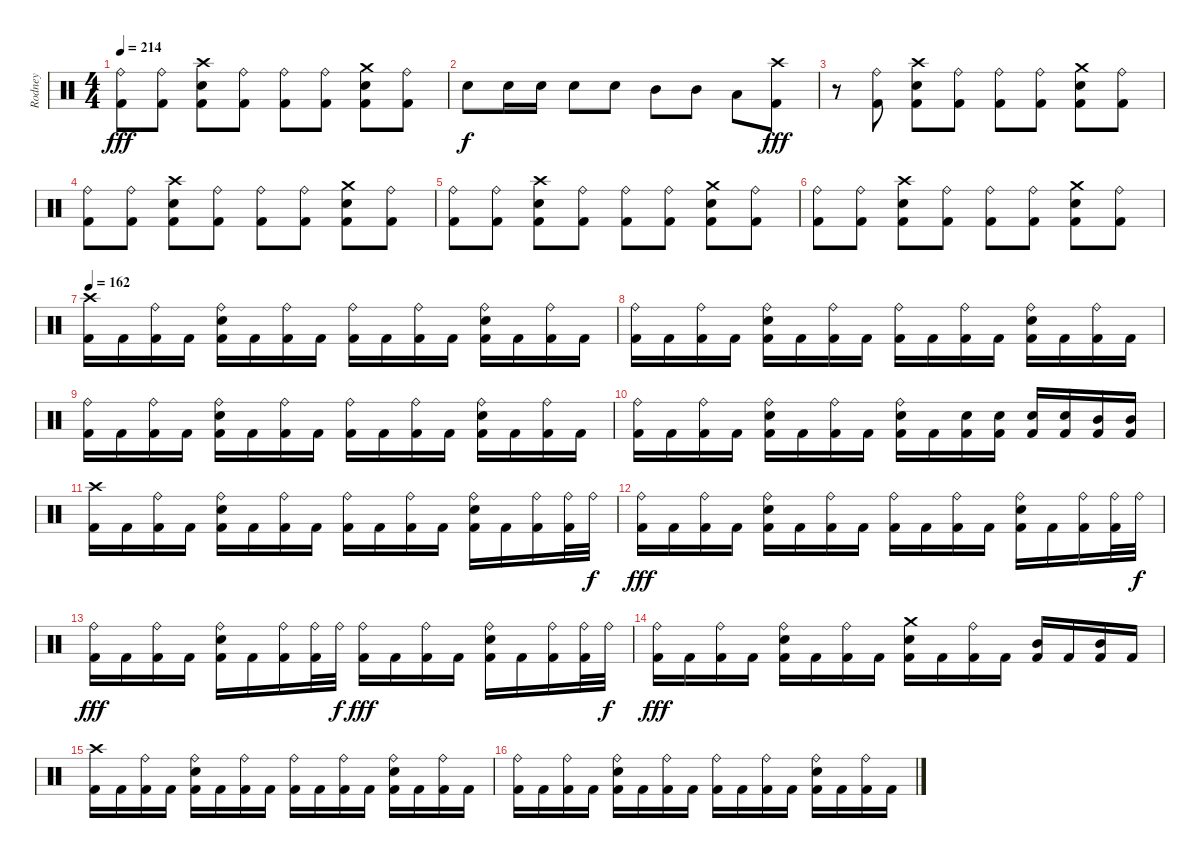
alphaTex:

\track ("Rodney" "Rodney") {instrument percussion}
\staff {score}
\articulation defaults
\ts (4 4)
\tempo 214
\clef neutral
\ks c
("Ride (bell)" "Kick (hit) 2").8{dy fff} ("Ride (bell)" "Kick (hit) 2").8 ("Crash high (hit)" "Snare (hit) 2" "Kick (hit) 2").8 ("Ride (bell)" "Kick (hit) 2").8 ("Ride (bell)" "Kick (hit) 2").8 ("Ride (bell)" "Kick (hit) 2").8 ("Crash medium (hit)" "Snare (hit) 2" "Kick (hit) 2").8 ("Ride (bell)" "Kick (hit) 2").8 |
"Snare (hit) 2".8{dy f} "Snare (hit) 2".16 "Snare (hit) 2".16 "Snare (hit) 2".8 "Snare (hit) 2".8 "Mid Tom (hit)".8 "Mid Tom (hit)".8 "Low Tom (hit)".8 ("Crash high (hit)" "Kick (hit) 2").8{dy fff} |
r.8 ("Ride (bell)" "Kick (hit) 2").8 ("Crash high (hit)" "Snare (hit) 2" "Kick (hit) 2").8 ("Ride (bell)" "Kick (hit) 2").8 ("Ride (bell)" "Kick (hit) 2").8 ("Ride (bell)" "Kick (hit) 2").8 ("Crash medium (hit)" "Snare (hit) 2" "Kick (hit) 2").8 ("Ride (bell)" "Kick (hit) 2").8 |
("Ride (bell)" "Kick (hit) 2").8 ("Ride (bell)" "Kick (hit) 2").8 ("Crash high (hit)" "Snare (hit) 2" "Kick (hit) 2").8 ("Ride (bell)" "Kick (hit) 2").8 ("Ride (bell)" "Kick (hit) 2").8 ("Ride (bell)" "Kick (hit) 2").8 ("Crash medium (hit)" "Snare (hit) 2" "Kick (hit) 2").8 ("Ride (bell)" "Kick (hit) 2").8 |
("Ride (bell)" "Kick (hit) 2").8 ("Ride (bell)" "Kick (hit) 2").8 ("Crash high (hit)" "Snare (hit) 2" "Kick (hit) 2").8 ("Ride (bell)" "Kick (hit) 2").8 ("Ride (bell)" "Kick (hit) 2").8 ("Ride (bell)" "Kick (hit) 2").8 ("Crash medium (hit)" "Snare (hit) 2" "Kick (hit) 2").8 ("Ride (bell)" "Kick (hit) 2").8 |
("Ride (bell)" "Kick (hit) 2").8 ("Ride (bell)" "Kick (hit) 2").8 ("Crash high (hit)" "Snare (hit) 2" "Kick (hit) 2").8 ("Ride (bell)" "Kick (hit) 2").8 ("Ride (bell)" "Kick (hit) 2").8 ("Ride (bell)" "Kick (hit) 2").8 ("Crash medium (hit)" "Snare (hit) 2" "Kick (hit) 2").8 ("Ride (bell)" "Kick (hit) 2").8 |
\tempo 162
("Crash high (hit)" "Kick (hit) 2").16 "Kick (hit) 2".16 ("Ride (bell)" "Kick (hit) 2").16 "Kick (hit) 2".16 ("Ride (bell)" "Snare (hit) 2" "Kick (hit) 2").16 "Kick (hit) 2".16 ("Ride (bell)" "Kick (hit) 2").16 "Kick (hit) 2".16 ("Ride (bell)" "Kick (hit) 2").16 "Kick (hit) 2".16 ("Ride (bell)" "Kick (hit) 2").16 "Kick (hit) 2".16 ("Ride (bell)" "Snare (hit) 2" "Kick (hit) 2").16 "Kick (hit) 2".16 ("Ride (bell)" "Kick (hit) 2").16 "Kick (hit) 2".16 |
("Ride (bell)" "Kick (hit) 2").16 "Kick (hit) 2".16 ("Ride (bell)" "Kick (hit) 2").16 "Kick (hit) 2".16 ("Ride (bell)" "Snare (hit) 2" "Kick (hit) 2").16 "Kick (hit) 2".16 ("Ride (bell)" "Kick (hit) 2").16 "Kick (hit) 2".16 ("Ride (bell)" "Kick (hit) 2").16 "Kick (hit) 2".16 ("Ride (bell)" "Kick (hit) 2").16 "Kick (hit) 2".16 ("Ride (bell)" "Snare (hit) 2" "Kick (hit) 2").16 "Kick (hit) 2".16 ("Ride (bell)" "Kick (hit) 2").16 "Kick (hit) 2".16 |
("Ride (bell)" "Kick (hit) 2").16 "Kick (hit) 2".16 ("Ride (bell)" "Kick (hit) 2").16 "Kick (hit) 2".16 ("Ride (bell)" "Snare (hit) 2" "Kick (hit) 2").16 "Kick (hit) 2".16 ("Ride (bell)" "Kick (hit) 2").16 "Kick (hit) 2".16 ("Ride (bell)" "Kick (hit) 2").16 "Kick (hit) 2".16 ("Ride (bell)" "Kick (hit) 2").16 "Kick (hit) 2".16 ("Ride (bell)" "Snare (hit) 2" "Kick (hit) 2").16 "Kick (hit) 2".16 ("Ride (bell)" "Kick (hit) 2").16 "Kick (hit) 2".16 |
("Ride (bell)" "Kick (hit) 2").16 "Kick (hit) 2".16 ("Ride (bell)" "Kick (hit) 2").16 "Kick (hit) 2".16 ("Ride (bell)" "Snare (hit) 2" "Kick (hit) 2").16 "Kick (hit) 2".16 ("Ride (bell)" "Kick (hit) 2").16 "Kick (hit) 2".16 ("Ride (bell)" "Snare (hit) 2" "Kick (hit) 2").16 "Kick (hit) 2".16 ("Snare (hit) 2" "Kick (hit) 2").16 ("Snare (hit) 2" "Kick (hit) 2").16 ("Snare (hit) 2" "Kick (hit) 2").16 ("Snare (hit) 2" "Kick (hit) 2").16 ("Mid Tom (hit)" "Kick (hit) 2").16 ("Mid Tom (hit)" "Kick (hit) 2").16 |
("Crash high (hit)" "Kick (hit) 2").16 "Kick (hit) 2".16 ("Ride (bell)" "Kick (hit) 2").16 "Kick (hit) 2".16 ("Ride (bell)" "Snare (hit) 2" "Kick (hit) 2").16 "Kick (hit) 2".16 ("Ride (bell)" "Kick (hit) 2").16 "Kick (hit) 2".16 ("Ride (bell)" "Kick (hit) 2").16 "Kick (hit) 2".16 ("Ride (bell)" "Kick (hit) 2").16 "Kick (hit) 2".16 ("Ride (bell)" "Snare (hit) 2" "Kick (hit) 2").16 "Kick (hit) 2".16 ("Ride (bell)" "Kick (hit) 2").16 ("Ride (bell)" "Kick (hit) 2").32 "Ride (bell)".32{dy f} |
("Ride (bell)" "Kick (hit) 2").16{dy fff} "Kick (hit) 2".16 ("Ride (bell)" "Kick (hit) 2").16 "Kick (hit) 2".16 ("Ride (bell)" "Snare (hit) 2" "Kick (hit) 2").16 "Kick (hit) 2".16 ("Ride (bell)" "Kick (hit) 2").16 "Kick (hit) 2".16 ("Ride (bell)" "Kick (hit) 2").16 "Kick (hit) 2".16 ("Ride (bell)" "Kick (hit) 2").16 "Kick (hit) 2".16 ("Ride (bell)" "Snare (hit) 2" "Kick (hit) 2").16 "Kick (hit) 2".16 ("Ride (bell)" "Kick (hit) 2").16 ("Ride (bell)" "Kick (hit) 2").32 "Ride (bell)".32{dy f} |
("Ride (bell)" "Kick (hit) 2").16{dy fff} "Kick (hit) 2".16 ("Ride (bell)" "Kick (hit) 2").16 "Kick (hit) 2".16 ("Ride (bell)" "Snare (hit) 2" "Kick (hit) 2").16 "Kick (hit) 2".16 ("Ride (bell)" "Kick (hit) 2").16 ("Ride (bell)" "Kick (hit) 2").32 "Ride (bell)".32{dy f} ("Ride (bell)" "Kick (hit) 2").16{dy fff} "Kick (hit) 2".16 ("Ride (bell)" "Kick (hit) 2").16 "Kick (hit) 2".16 ("Ride (bell)" "Snare (hit) 2" "Kick (hit) 2").16 "Kick (hit) 2".16 ("Ride (bell)" "Kick (hit) 2").16 ("Ride (bell)" "Kick (hit) 2").32 "Ride (bell)".32{dy f} |
("Ride (bell)" "Kick (hit) 2").16{dy fff} "Kick (hit) 2".16 ("Ride (bell)" "Kick (hit) 2").16 "Kick (hit) 2".16 ("Ride (bell)" "Snare (hit) 2" "Kick (hit) 2").16 "Kick (hit) 2".16 ("Ride (bell)" "Kick (hit) 2").16 "Kick (hit) 2".16 ("Crash medium (hit)" "Snare (hit) 2" "Kick (hit) 2").16 "Kick (hit) 2".16 ("Ride (bell)" "Kick (hit) 2").16 "Kick (hit) 2".16 ("Mid Tom (hit)" "Kick (hit) 2").16 "Kick (hit) 2".16 ("Mid Tom (hit)" "Kick (hit) 2").16 "Kick (hit) 2".16 |
("Crash high (hit)" "Kick (hit) 2").16 "Kick (hit) 2".16 ("Ride (bell)" "Kick (hit) 2").16 "Kick (hit) 2".16 ("Ride (bell)" "Snare (hit) 2" "Kick (hit) 2").16 "Kick (hit) 2".16 ("Ride (bell)" "Kick (hit) 2").16 "Kick (hit) 2".16 ("Ride (bell)" "Kick (hit) 2").16 "Kick (hit) 2".16 ("Ride (bell)" "Kick (hit) 2").16 "Kick (hit) 2".16 ("Ride (bell)" "Snare (hit) 2" "Kick (hit) 2").16 "Kick (hit) 2".16 ("Ride (bell)" "Kick (hit) 2").16 "Kick (hit) 2".16 |
("Ride (bell)" "Kick (hit) 2").16 "Kick (hit) 2".16 ("Ride (bell)" "Kick (hit) 2").16 "Kick (hit) 2".16 ("Ride (bell)" "Snare (hit) 2" "Kick (hit) 2").16 "Kick (hit) 2".16 ("Ride (bell)" "Kick (hit) 2").16 "Kick (hit) 2".16 ("Ride (bell)" "Kick (hit) 2").16 "Kick (hit) 2".16 ("Ride (bell)" "Kick (hit) 2").16 "Kick (hit) 2".16 ("Ride (bell)" "Snare (hit) 2" "Kick (hit) 2").16 "Kick (hit) 2".16 ("Ride (bell)" "Kick (hit) 2").16 "Kick (hit) 2".16
